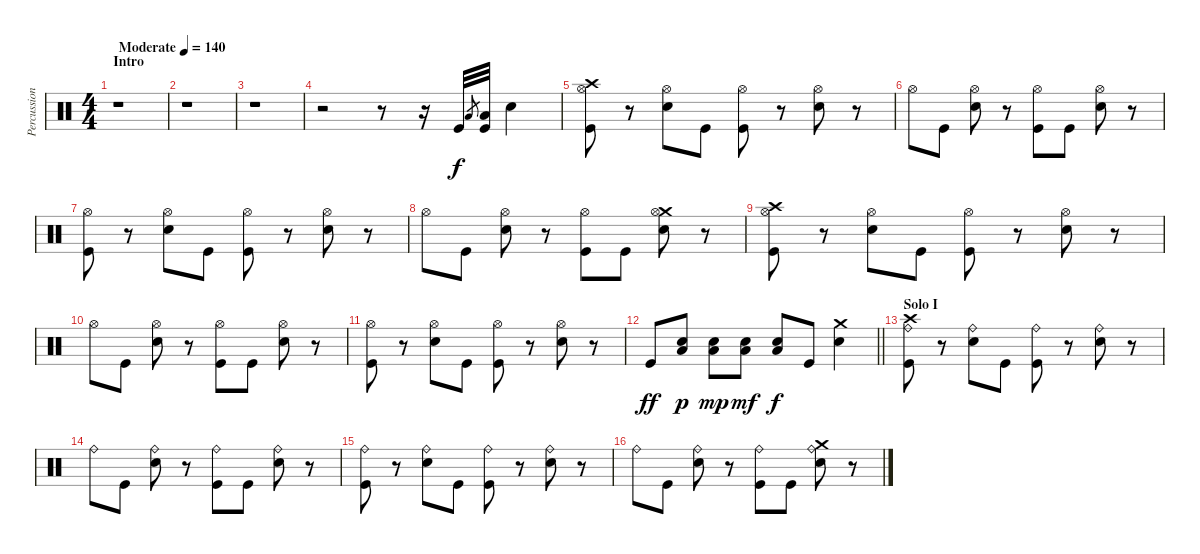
\track ("Percussion" "Percussion") {instrument percussion}
\staff {score}
\articulation defaults
\ts (4 4)
\section ("" "Intro")
\tempo (140 "Moderate")
\clef neutral
\ks c
r.1{dy f} |
r.1 |
r.1 |
r.2 r.8 r.16 "Kick (hit)".32 "Low Floor Tom (hit)".8{gr} ("Low Floor Tom (hit)" "Kick (hit)").32 "Snare (hit) 2".4 |
("Crash high (hit)" "Hi-Hat (open)" "Kick (hit)").8 r.8 ("Hi-Hat (open)" "Snare (hit) 2").8 "Kick (hit)".8 ("Hi-Hat (open)" "Kick (hit)").8 r.8 ("Hi-Hat (open)" "Snare (hit) 2").8 r.8 |
"Hi-Hat (open)".8 "Kick (hit)".8 ("Hi-Hat (open)" "Snare (hit) 2").8 r.8 ("Hi-Hat (open)" "Kick (hit)").8 "Kick (hit)".8 ("Hi-Hat (open)" "Snare (hit) 2").8 r.8 |
("Hi-Hat (open)" "Kick (hit)").8 r.8 ("Hi-Hat (open)" "Snare (hit) 2").8 "Kick (hit)".8 ("Hi-Hat (open)" "Kick (hit)").8 r.8 ("Hi-Hat (open)" "Snare (hit) 2").8 r.8 |
"Hi-Hat (open)".8 "Kick (hit)".8 ("Hi-Hat (open)" "Snare (hit) 2").8 r.8 ("Hi-Hat (open)" "Kick (hit)").8 "Kick (hit)".8 ("Crash medium (hit)" "Hi-Hat (open)" "Snare (hit) 2").8 r.8 |
("Crash high (hit)" "Hi-Hat (open)" "Kick (hit)").8 r.8 ("Hi-Hat (open)" "Snare (hit) 2").8 "Kick (hit)".8 ("Hi-Hat (open)" "Kick (hit)").8 r.8 ("Hi-Hat (open)" "Snare (hit) 2").8 r.8 |
"Hi-Hat (open)".8 "Kick (hit)".8 ("Hi-Hat (open)" "Snare (hit) 2").8 r.8 ("Hi-Hat (open)" "Kick (hit)").8 "Kick (hit)".8 ("Hi-Hat (open)" "Snare (hit) 2").8 r.8 |
("Hi-Hat (open)" "Kick (hit)").8 r.8 ("Hi-Hat (open)" "Snare (hit) 2").8 "Kick (hit)".8 ("Hi-Hat (open)" "Kick (hit)").8 r.8 ("Hi-Hat (open)" "Snare (hit) 2").8 r.8 |
\barLineRight lightlight "Kick (hit)".8{dy ff}
("Low Floor Tom (hit)" "Snare (hit) 2").8{dy p} ("Low Floor Tom (hit)" "Snare (hit) 2").8{dy mp} ("Low Floor Tom (hit)" "Snare (hit) 2").8{dy mf} ("Low Floor Tom (hit)" "Snare (hit) 2").8{dy f} "Kick (hit)".8 ("Crash medium (hit)" "Snare (hit) 2").4 |
\section ("" "Solo I")
("Crash high (hit)" "Ride (bell)" "Kick (hit)").8 r.8 ("Ride (bell)" "Snare (hit) 2").8 "Kick (hit)".8 ("Ride (bell)" "Kick (hit)").8 r.8 ("Ride (bell)" "Snare (hit) 2").8 r.8 |
"Ride (bell)".8 "Kick (hit)".8 ("Ride (bell)" "Snare (hit) 2").8 r.8 ("Ride (bell)" "Kick (hit)").8 "Kick (hit)".8 ("Ride (bell)" "Snare (hit) 2").8 r.8 |
("Ride (bell)" "Kick (hit)").8 r.8 ("Ride (bell)" "Snare (hit) 2").8 "Kick (hit)".8 ("Ride (bell)" "Kick (hit)").8 r.8 ("Ride (bell)" "Snare (hit) 2").8 r.8 |
"Ride (bell)".8 "Kick (hit)".8 ("Ride (bell)" "Snare (hit) 2").8 r.8 ("Ride (bell)" "Kick (hit)").8 "Kick (hit)".8 ("Crash medium (hit)" "Ride (bell)" "Snare (hit) 2").8 r.8
